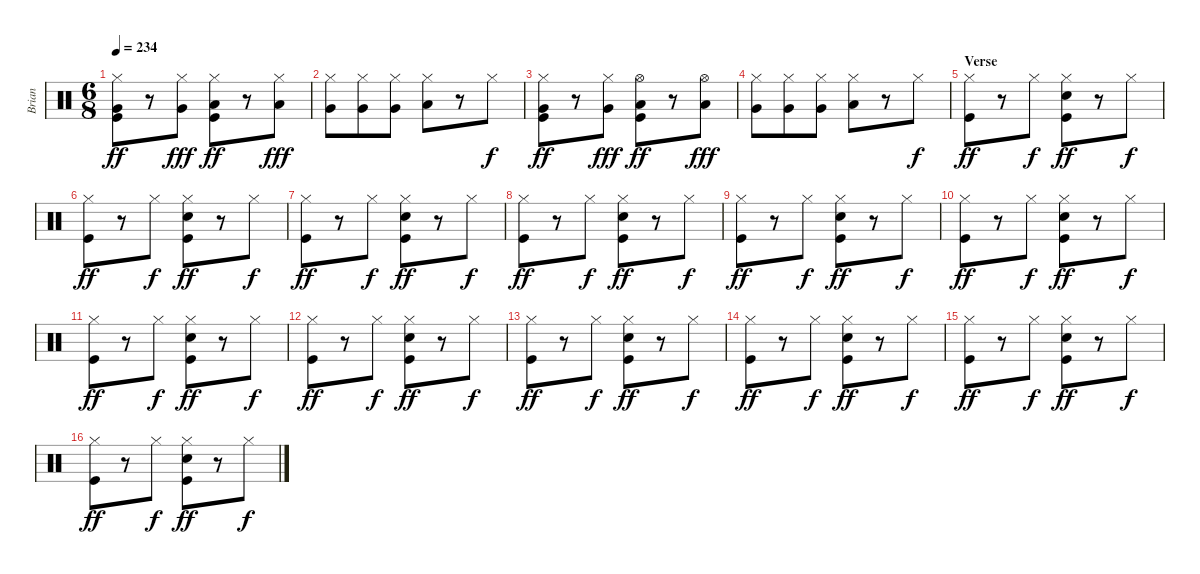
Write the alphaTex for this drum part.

\track ("Brian" "Brian") {instrument percussion}
\staff {score}
\articulation defaults
\ts (6 8)
\tempo 234
\clef neutral
\ks c
("Hi-Hat (closed)" "Very Low Tom (hit)" "Kick (hit)").8{dy ff} r.8 ("Hi-Hat (closed)" "Very Low Tom (hit)").8{dy fff} ("Hi-Hat (closed)" "Low Floor Tom (hit)" "Kick (hit)").8{dy ff} r.8 ("Hi-Hat (closed)" "Low Floor Tom (hit)").8{dy fff} |
("Hi-Hat (closed)" "Very Low Tom (hit)").8 ("Hi-Hat (closed)" "Very Low Tom (hit)").8 ("Hi-Hat (closed)" "Very Low Tom (hit)").8 ("Hi-Hat (closed)" "Low Floor Tom (hit)").8 r.8 "Hi-Hat (closed)".8{dy f} |
("Hi-Hat (closed)" "Very Low Tom (hit)" "Kick (hit)").8{dy ff} r.8 ("Hi-Hat (closed)" "Very Low Tom (hit)").8{dy fff} ("Hi-Hat (open)" "Low Floor Tom (hit)" "Kick (hit)").8{dy ff} r.8 ("Hi-Hat (open)" "Low Floor Tom (hit)").8{dy fff} |
("Hi-Hat (closed)" "Very Low Tom (hit)").8 ("Hi-Hat (closed)" "Very Low Tom (hit)").8 ("Hi-Hat (closed)" "Very Low Tom (hit)").8 ("Hi-Hat (closed)" "Low Floor Tom (hit)").8 r.8 "Hi-Hat (closed)".8{dy f} |
\section ("" "Verse")
("Hi-Hat (closed)" "Kick (hit)").8{dy ff} r.8 "Hi-Hat (closed)".8{dy f} ("Hi-Hat (closed)" "Electric Snare (hit)" "Kick (hit)").8{dy ff} r.8 "Hi-Hat (closed)".8{dy f} |
("Hi-Hat (closed)" "Kick (hit)").8{dy ff} r.8 "Hi-Hat (closed)".8{dy f} ("Hi-Hat (closed)" "Electric Snare (hit)" "Kick (hit)").8{dy ff} r.8 "Hi-Hat (closed)".8{dy f} |
("Hi-Hat (closed)" "Kick (hit)").8{dy ff} r.8 "Hi-Hat (closed)".8{dy f} ("Hi-Hat (closed)" "Electric Snare (hit)" "Kick (hit)").8{dy ff} r.8 "Hi-Hat (closed)".8{dy f} |
("Hi-Hat (closed)" "Kick (hit)").8{dy ff} r.8 "Hi-Hat (closed)".8{dy f} ("Hi-Hat (closed)" "Electric Snare (hit)" "Kick (hit)").8{dy ff} r.8 "Hi-Hat (closed)".8{dy f} |
("Hi-Hat (closed)" "Kick (hit)").8{dy ff} r.8 "Hi-Hat (closed)".8{dy f} ("Hi-Hat (closed)" "Electric Snare (hit)" "Kick (hit)").8{dy ff} r.8 "Hi-Hat (closed)".8{dy f} |
("Hi-Hat (closed)" "Kick (hit)").8{dy ff} r.8 "Hi-Hat (closed)".8{dy f} ("Hi-Hat (closed)" "Electric Snare (hit)" "Kick (hit)").8{dy ff} r.8 "Hi-Hat (closed)".8{dy f} |
("Hi-Hat (closed)" "Kick (hit)").8{dy ff} r.8 "Hi-Hat (closed)".8{dy f} ("Hi-Hat (closed)" "Electric Snare (hit)" "Kick (hit)").8{dy ff} r.8 "Hi-Hat (closed)".8{dy f} |
("Hi-Hat (closed)" "Kick (hit)").8{dy ff} r.8 "Hi-Hat (closed)".8{dy f} ("Hi-Hat (closed)" "Electric Snare (hit)" "Kick (hit)").8{dy ff} r.8 "Hi-Hat (closed)".8{dy f} |
("Hi-Hat (closed)" "Kick (hit)").8{dy ff} r.8 "Hi-Hat (closed)".8{dy f} ("Hi-Hat (closed)" "Electric Snare (hit)" "Kick (hit)").8{dy ff} r.8 "Hi-Hat (closed)".8{dy f} |
("Hi-Hat (closed)" "Kick (hit)").8{dy ff} r.8 "Hi-Hat (closed)".8{dy f} ("Hi-Hat (closed)" "Electric Snare (hit)" "Kick (hit)").8{dy ff} r.8 "Hi-Hat (closed)".8{dy f} |
("Hi-Hat (closed)" "Kick (hit)").8{dy ff} r.8 "Hi-Hat (closed)".8{dy f} ("Hi-Hat (closed)" "Electric Snare (hit)" "Kick (hit)").8{dy ff} r.8 "Hi-Hat (closed)".8{dy f} |
("Hi-Hat (closed)" "Kick (hit)").8{dy ff} r.8 "Hi-Hat (closed)".8{dy f} ("Hi-Hat (closed)" "Electric Snare (hit)" "Kick (hit)").8{dy ff} r.8 "Hi-Hat (closed)".8{dy f}
